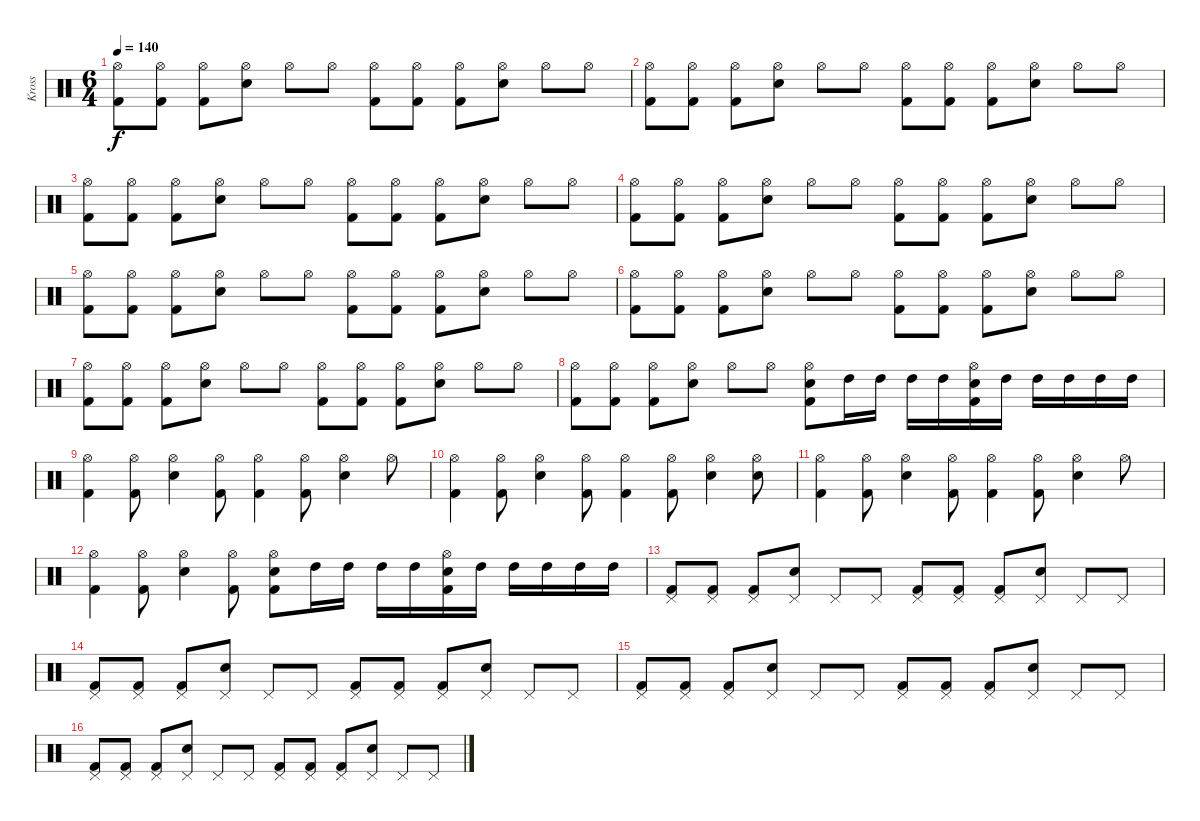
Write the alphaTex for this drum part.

\track ("Kross" "Kross") {instrument percussion}
\staff {score}
\articulation defaults
\ts (6 4)
\tempo 140
\clef neutral
\ks c
("Hi-Hat (open)" "Kick (hit) 2").8{dy f} ("Hi-Hat (open)" "Kick (hit) 2").8 ("Hi-Hat (open)" "Kick (hit) 2").8 ("Hi-Hat (open)" "Electric Snare (hit)").8 "Hi-Hat (open)".8 "Hi-Hat (open)".8 ("Hi-Hat (open)" "Kick (hit) 2").8 ("Hi-Hat (open)" "Kick (hit) 2").8 ("Hi-Hat (open)" "Kick (hit) 2").8 ("Hi-Hat (open)" "Electric Snare (hit)").8 "Hi-Hat (open)".8 "Hi-Hat (open)".8 |
("Hi-Hat (open)" "Kick (hit) 2").8 ("Hi-Hat (open)" "Kick (hit) 2").8 ("Hi-Hat (open)" "Kick (hit) 2").8 ("Hi-Hat (open)" "Electric Snare (hit)").8 "Hi-Hat (open)".8 "Hi-Hat (open)".8 ("Hi-Hat (open)" "Kick (hit) 2").8 ("Hi-Hat (open)" "Kick (hit) 2").8 ("Hi-Hat (open)" "Kick (hit) 2").8 ("Hi-Hat (open)" "Electric Snare (hit)").8 "Hi-Hat (open)".8 "Hi-Hat (open)".8 |
("Hi-Hat (open)" "Kick (hit) 2").8 ("Hi-Hat (open)" "Kick (hit) 2").8 ("Hi-Hat (open)" "Kick (hit) 2").8 ("Hi-Hat (open)" "Electric Snare (hit)").8 "Hi-Hat (open)".8 "Hi-Hat (open)".8 ("Hi-Hat (open)" "Kick (hit) 2").8 ("Hi-Hat (open)" "Kick (hit) 2").8 ("Hi-Hat (open)" "Kick (hit) 2").8 ("Hi-Hat (open)" "Electric Snare (hit)").8 "Hi-Hat (open)".8 "Hi-Hat (open)".8 |
("Hi-Hat (open)" "Kick (hit) 2").8 ("Hi-Hat (open)" "Kick (hit) 2").8 ("Hi-Hat (open)" "Kick (hit) 2").8 ("Hi-Hat (open)" "Electric Snare (hit)").8 "Hi-Hat (open)".8 "Hi-Hat (open)".8 ("Hi-Hat (open)" "Kick (hit) 2").8 ("Hi-Hat (open)" "Kick (hit) 2").8 ("Hi-Hat (open)" "Kick (hit) 2").8 ("Hi-Hat (open)" "Electric Snare (hit)").8 "Hi-Hat (open)".8 "Hi-Hat (open)".8 |
("Hi-Hat (open)" "Kick (hit) 2").8 ("Hi-Hat (open)" "Kick (hit) 2").8 ("Hi-Hat (open)" "Kick (hit) 2").8 ("Hi-Hat (open)" "Electric Snare (hit)").8 "Hi-Hat (open)".8 "Hi-Hat (open)".8 ("Hi-Hat (open)" "Kick (hit) 2").8 ("Hi-Hat (open)" "Kick (hit) 2").8 ("Hi-Hat (open)" "Kick (hit) 2").8 ("Hi-Hat (open)" "Electric Snare (hit)").8 "Hi-Hat (open)".8 "Hi-Hat (open)".8 |
("Hi-Hat (open)" "Kick (hit) 2").8 ("Hi-Hat (open)" "Kick (hit) 2").8 ("Hi-Hat (open)" "Kick (hit) 2").8 ("Hi-Hat (open)" "Electric Snare (hit)").8 "Hi-Hat (open)".8 "Hi-Hat (open)".8 ("Hi-Hat (open)" "Kick (hit) 2").8 ("Hi-Hat (open)" "Kick (hit) 2").8 ("Hi-Hat (open)" "Kick (hit) 2").8 ("Hi-Hat (open)" "Electric Snare (hit)").8 "Hi-Hat (open)".8 "Hi-Hat (open)".8 |
("Hi-Hat (open)" "Kick (hit) 2").8 ("Hi-Hat (open)" "Kick (hit) 2").8 ("Hi-Hat (open)" "Kick (hit) 2").8 ("Hi-Hat (open)" "Electric Snare (hit)").8 "Hi-Hat (open)".8 "Hi-Hat (open)".8 ("Hi-Hat (open)" "Kick (hit) 2").8 ("Hi-Hat (open)" "Kick (hit) 2").8 ("Hi-Hat (open)" "Kick (hit) 2").8 ("Hi-Hat (open)" "Electric Snare (hit)").8 "Hi-Hat (open)".8 "Hi-Hat (open)".8 |
("Hi-Hat (open)" "Kick (hit) 2").8 ("Hi-Hat (open)" "Kick (hit) 2").8 ("Hi-Hat (open)" "Kick (hit) 2").8 ("Hi-Hat (open)" "Electric Snare (hit)").8 "Hi-Hat (open)".8 "Hi-Hat (open)".8 ("Hi-Hat (open)" "Electric Snare (hit)" "Kick (hit) 2").8 "High Tom (hit)".16 "High Tom (hit)".16 "High Tom (hit)".16 "High Tom (hit)".16 ("Hi-Hat (open)" "Electric Snare (hit)" "Kick (hit) 2").16 "High Tom (hit)".16 "High Tom (hit)".16 "High Tom (hit)".16 "High Tom (hit)".16 "High Tom (hit)".16 |
("Hi-Hat (open)" "Kick (hit) 2").4 ("Hi-Hat (open)" "Kick (hit) 2").8 ("Hi-Hat (open)" "Electric Snare (hit)").4 ("Hi-Hat (open)" "Kick (hit) 2").8 ("Hi-Hat (open)" "Kick (hit) 2").4 ("Hi-Hat (open)" "Kick (hit) 2").8 ("Hi-Hat (open)" "Electric Snare (hit)").4 "Hi-Hat (open)".8 |
("Hi-Hat (open)" "Kick (hit) 2").4 ("Hi-Hat (open)" "Kick (hit) 2").8 ("Hi-Hat (open)" "Electric Snare (hit)").4 ("Hi-Hat (open)" "Kick (hit) 2").8 ("Hi-Hat (open)" "Kick (hit) 2").4 ("Hi-Hat (open)" "Kick (hit) 2").8 ("Hi-Hat (open)" "Electric Snare (hit)").4 ("Hi-Hat (open)" "Electric Snare (hit)").8 |
("Hi-Hat (open)" "Kick (hit) 2").4 ("Hi-Hat (open)" "Kick (hit) 2").8 ("Hi-Hat (open)" "Electric Snare (hit)").4 ("Hi-Hat (open)" "Kick (hit) 2").8 ("Hi-Hat (open)" "Kick (hit) 2").4 ("Hi-Hat (open)" "Kick (hit) 2").8 ("Hi-Hat (open)" "Electric Snare (hit)").4 "Hi-Hat (open)".8 |
("Hi-Hat (open)" "Kick (hit) 2").4 ("Hi-Hat (open)" "Kick (hit) 2").8 ("Hi-Hat (open)" "Electric Snare (hit)").4 ("Hi-Hat (open)" "Kick (hit) 2").8 ("Hi-Hat (open)" "Electric Snare (hit)" "Kick (hit) 2").8 "High Tom (hit)".16 "High Tom (hit)".16 "High Tom (hit)".16 "High Tom (hit)".16 ("Hi-Hat (open)" "Electric Snare (hit)" "Kick (hit) 2").16 "High Tom (hit)".16 "High Tom (hit)".16 "High Tom (hit)".16 "High Tom (hit)".16 "High Tom (hit)".16 |
("Pedal Hi-Hat (hit)" "Kick (hit) 2").8 ("Pedal Hi-Hat (hit)" "Kick (hit) 2").8 ("Pedal Hi-Hat (hit)" "Kick (hit) 2").8 ("Pedal Hi-Hat (hit)" "Electric Snare (hit)").8 "Pedal Hi-Hat (hit)".8 "Pedal Hi-Hat (hit)".8 ("Pedal Hi-Hat (hit)" "Kick (hit) 2").8 ("Pedal Hi-Hat (hit)" "Kick (hit) 2").8 ("Pedal Hi-Hat (hit)" "Kick (hit) 2").8 ("Pedal Hi-Hat (hit)" "Electric Snare (hit)").8 "Pedal Hi-Hat (hit)".8 "Pedal Hi-Hat (hit)".8 |
("Pedal Hi-Hat (hit)" "Kick (hit) 2").8 ("Pedal Hi-Hat (hit)" "Kick (hit) 2").8 ("Pedal Hi-Hat (hit)" "Kick (hit) 2").8 ("Pedal Hi-Hat (hit)" "Electric Snare (hit)").8 "Pedal Hi-Hat (hit)".8 "Pedal Hi-Hat (hit)".8 ("Pedal Hi-Hat (hit)" "Kick (hit) 2").8 ("Pedal Hi-Hat (hit)" "Kick (hit) 2").8 ("Pedal Hi-Hat (hit)" "Kick (hit) 2").8 ("Pedal Hi-Hat (hit)" "Electric Snare (hit)").8 "Pedal Hi-Hat (hit)".8 "Pedal Hi-Hat (hit)".8 |
("Pedal Hi-Hat (hit)" "Kick (hit) 2").8 ("Pedal Hi-Hat (hit)" "Kick (hit) 2").8 ("Pedal Hi-Hat (hit)" "Kick (hit) 2").8 ("Pedal Hi-Hat (hit)" "Electric Snare (hit)").8 "Pedal Hi-Hat (hit)".8 "Pedal Hi-Hat (hit)".8 ("Pedal Hi-Hat (hit)" "Kick (hit) 2").8 ("Pedal Hi-Hat (hit)" "Kick (hit) 2").8 ("Pedal Hi-Hat (hit)" "Kick (hit) 2").8 ("Pedal Hi-Hat (hit)" "Electric Snare (hit)").8 "Pedal Hi-Hat (hit)".8 "Pedal Hi-Hat (hit)".8 |
("Pedal Hi-Hat (hit)" "Kick (hit) 2").8 ("Pedal Hi-Hat (hit)" "Kick (hit) 2").8 ("Pedal Hi-Hat (hit)" "Kick (hit) 2").8 ("Pedal Hi-Hat (hit)" "Electric Snare (hit)").8 "Pedal Hi-Hat (hit)".8 "Pedal Hi-Hat (hit)".8 ("Pedal Hi-Hat (hit)" "Kick (hit) 2").8 ("Pedal Hi-Hat (hit)" "Kick (hit) 2").8 ("Pedal Hi-Hat (hit)" "Kick (hit) 2").8 ("Pedal Hi-Hat (hit)" "Electric Snare (hit)").8 "Pedal Hi-Hat (hit)".8 "Pedal Hi-Hat (hit)".8
